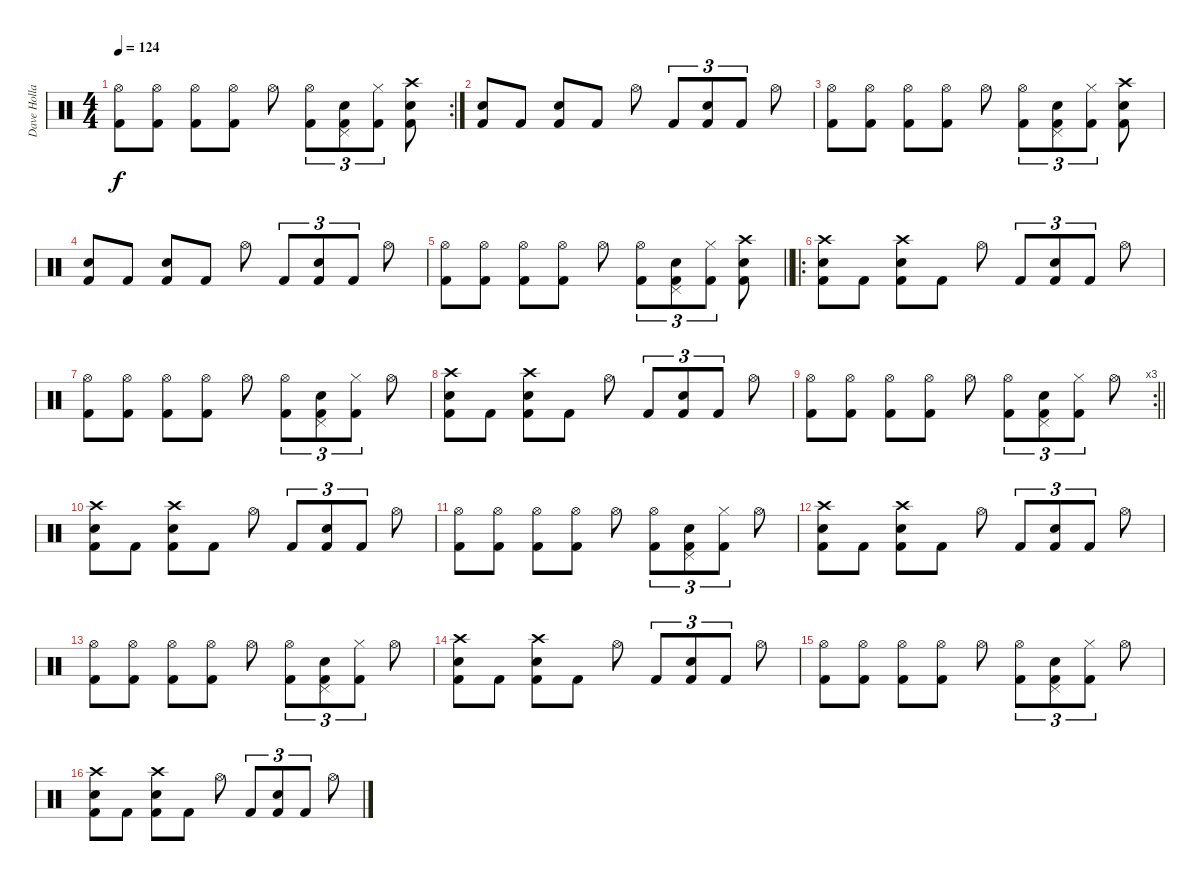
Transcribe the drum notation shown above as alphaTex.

\track ("Dave Holland" "Dave Holla") {instrument percussion}
\staff {score}
\articulation defaults
\rc 2
\ts (4 4)
\tempo 124
\clef neutral
\ks c
("Hi-Hat (open)" "Kick (hit) 2").8{dy f} ("Hi-Hat (open)" "Kick (hit) 2").8 ("Hi-Hat (open)" "Kick (hit) 2").8 ("Hi-Hat (open)" "Kick (hit) 2").8 "Hi-Hat (open)".8 ("Hi-Hat (open)" "Kick (hit) 2").8{tu (3 2)} ("Pedal Hi-Hat (hit)" "Snare (hit) 2" "Kick (hit) 2").8{tu (3 2)} ("Hi-Hat (closed)" "Kick (hit) 2").8{tu (3 2)} ("Crash high (hit)" "Snare (hit) 2" "Kick (hit) 2").8 |
("Snare (hit) 2" "Kick (hit) 2").8 "Kick (hit) 2".8 ("Snare (hit) 2" "Kick (hit) 2").8 "Kick (hit) 2".8 "Hi-Hat (open)".8 "Kick (hit) 2".8{tu (3 2)} ("Snare (hit) 2" "Kick (hit) 2").8{tu (3 2)} "Kick (hit) 2".8{tu (3 2)} "Hi-Hat (open)".8 |
("Hi-Hat (open)" "Kick (hit) 2").8 ("Hi-Hat (open)" "Kick (hit) 2").8 ("Hi-Hat (open)" "Kick (hit) 2").8 ("Hi-Hat (open)" "Kick (hit) 2").8 "Hi-Hat (open)".8 ("Hi-Hat (open)" "Kick (hit) 2").8{tu (3 2)} ("Pedal Hi-Hat (hit)" "Snare (hit) 2" "Kick (hit) 2").8{tu (3 2)} ("Hi-Hat (closed)" "Kick (hit) 2").8{tu (3 2)} ("Crash high (hit)" "Snare (hit) 2" "Kick (hit) 2").8 |
("Snare (hit) 2" "Kick (hit) 2").8 "Kick (hit) 2".8 ("Snare (hit) 2" "Kick (hit) 2").8 "Kick (hit) 2".8 "Hi-Hat (open)".8 "Kick (hit) 2".8{tu (3 2)} ("Snare (hit) 2" "Kick (hit) 2").8{tu (3 2)} "Kick (hit) 2".8{tu (3 2)} "Hi-Hat (open)".8 |
\barLineRight lightlight
("Hi-Hat (open)" "Kick (hit) 2").8 ("Hi-Hat (open)" "Kick (hit) 2").8 ("Hi-Hat (open)" "Kick (hit) 2").8 ("Hi-Hat (open)" "Kick (hit) 2").8 "Hi-Hat (open)".8 ("Hi-Hat (open)" "Kick (hit) 2").8{tu (3 2)} ("Pedal Hi-Hat (hit)" "Snare (hit) 2" "Kick (hit) 2").8{tu (3 2)} ("Hi-Hat (closed)" "Kick (hit) 2").8{tu (3 2)} ("Crash high (hit)" "Snare (hit) 2" "Kick (hit) 2").8 |
\ro
("Crash high (hit)" "Snare (hit) 2" "Kick (hit) 2").8 "Kick (hit) 2".8 ("Crash high (hit)" "Snare (hit) 2" "Kick (hit) 2").8 "Kick (hit) 2".8 "Hi-Hat (open)".8 "Kick (hit) 2".8{tu (3 2)} ("Snare (hit) 2" "Kick (hit) 2").8{tu (3 2)} "Kick (hit) 2".8{tu (3 2)} "Hi-Hat (open)".8 |
("Hi-Hat (open)" "Kick (hit) 2").8 ("Hi-Hat (open)" "Kick (hit) 2").8 ("Hi-Hat (open)" "Kick (hit) 2").8 ("Hi-Hat (open)" "Kick (hit) 2").8 "Hi-Hat (open)".8 ("Hi-Hat (open)" "Kick (hit) 2").8{tu (3 2)} ("Pedal Hi-Hat (hit)" "Snare (hit) 2" "Kick (hit) 2").8{tu (3 2)} ("Hi-Hat (closed)" "Kick (hit) 2").8{tu (3 2)} "Hi-Hat (open)".8 |
("Crash high (hit)" "Snare (hit) 2" "Kick (hit) 2").8 "Kick (hit) 2".8 ("Crash high (hit)" "Snare (hit) 2" "Kick (hit) 2").8 "Kick (hit) 2".8 "Hi-Hat (open)".8 "Kick (hit) 2".8{tu (3 2)} ("Snare (hit) 2" "Kick (hit) 2").8{tu (3 2)} "Kick (hit) 2".8{tu (3 2)} "Hi-Hat (open)".8 |
\rc 3
\barLineRight lightlight
("Hi-Hat (open)" "Kick (hit) 2").8 ("Hi-Hat (open)" "Kick (hit) 2").8 ("Hi-Hat (open)" "Kick (hit) 2").8 ("Hi-Hat (open)" "Kick (hit) 2").8 "Hi-Hat (open)".8 ("Hi-Hat (open)" "Kick (hit) 2").8{tu (3 2)} ("Pedal Hi-Hat (hit)" "Snare (hit) 2" "Kick (hit) 2").8{tu (3 2)} ("Hi-Hat (closed)" "Kick (hit) 2").8{tu (3 2)} "Hi-Hat (open)".8 |
("Crash high (hit)" "Snare (hit) 2" "Kick (hit) 2").8 "Kick (hit) 2".8 ("Crash high (hit)" "Snare (hit) 2" "Kick (hit) 2").8 "Kick (hit) 2".8 "Hi-Hat (open)".8 "Kick (hit) 2".8{tu (3 2)} ("Snare (hit) 2" "Kick (hit) 2").8{tu (3 2)} "Kick (hit) 2".8{tu (3 2)} "Hi-Hat (open)".8 |
("Hi-Hat (open)" "Kick (hit) 2").8 ("Hi-Hat (open)" "Kick (hit) 2").8 ("Hi-Hat (open)" "Kick (hit) 2").8 ("Hi-Hat (open)" "Kick (hit) 2").8 "Hi-Hat (open)".8 ("Hi-Hat (open)" "Kick (hit) 2").8{tu (3 2)} ("Pedal Hi-Hat (hit)" "Snare (hit) 2" "Kick (hit) 2").8{tu (3 2)} ("Hi-Hat (closed)" "Kick (hit) 2").8{tu (3 2)} "Hi-Hat (open)".8 |
("Crash high (hit)" "Snare (hit) 2" "Kick (hit) 2").8 "Kick (hit) 2".8 ("Crash high (hit)" "Snare (hit) 2" "Kick (hit) 2").8 "Kick (hit) 2".8 "Hi-Hat (open)".8 "Kick (hit) 2".8{tu (3 2)} ("Snare (hit) 2" "Kick (hit) 2").8{tu (3 2)} "Kick (hit) 2".8{tu (3 2)} "Hi-Hat (open)".8 |
("Hi-Hat (open)" "Kick (hit) 2").8 ("Hi-Hat (open)" "Kick (hit) 2").8 ("Hi-Hat (open)" "Kick (hit) 2").8 ("Hi-Hat (open)" "Kick (hit) 2").8 "Hi-Hat (open)".8 ("Hi-Hat (open)" "Kick (hit) 2").8{tu (3 2)} ("Pedal Hi-Hat (hit)" "Snare (hit) 2" "Kick (hit) 2").8{tu (3 2)} ("Hi-Hat (closed)" "Kick (hit) 2").8{tu (3 2)} "Hi-Hat (open)".8 |
("Crash high (hit)" "Snare (hit) 2" "Kick (hit) 2").8 "Kick (hit) 2".8 ("Crash high (hit)" "Snare (hit) 2" "Kick (hit) 2").8 "Kick (hit) 2".8 "Hi-Hat (open)".8 "Kick (hit) 2".8{tu (3 2)} ("Snare (hit) 2" "Kick (hit) 2").8{tu (3 2)} "Kick (hit) 2".8{tu (3 2)} "Hi-Hat (open)".8 |
("Hi-Hat (open)" "Kick (hit) 2").8 ("Hi-Hat (open)" "Kick (hit) 2").8 ("Hi-Hat (open)" "Kick (hit) 2").8 ("Hi-Hat (open)" "Kick (hit) 2").8 "Hi-Hat (open)".8 ("Hi-Hat (open)" "Kick (hit) 2").8{tu (3 2)} ("Pedal Hi-Hat (hit)" "Snare (hit) 2" "Kick (hit) 2").8{tu (3 2)} ("Hi-Hat (closed)" "Kick (hit) 2").8{tu (3 2)} "Hi-Hat (open)".8 |
("Crash high (hit)" "Snare (hit) 2" "Kick (hit) 2").8 "Kick (hit) 2".8 ("Crash high (hit)" "Snare (hit) 2" "Kick (hit) 2").8 "Kick (hit) 2".8 "Hi-Hat (open)".8 "Kick (hit) 2".8{tu (3 2)} ("Snare (hit) 2" "Kick (hit) 2").8{tu (3 2)} "Kick (hit) 2".8{tu (3 2)} "Hi-Hat (open)".8
